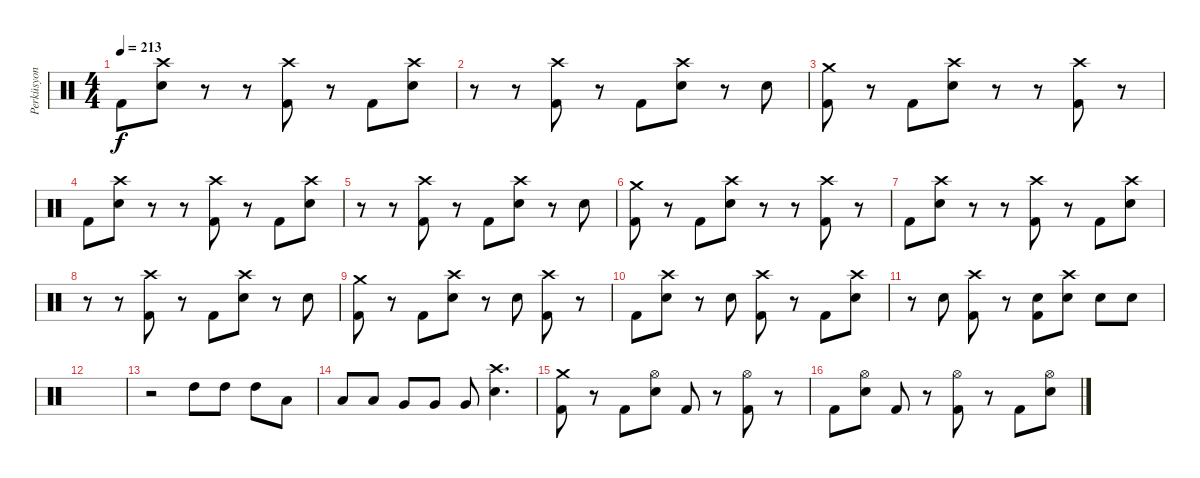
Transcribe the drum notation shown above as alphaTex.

\track ("Perküsyon" "Perküsyon") {instrument percussion}
\staff {score}
\articulation defaults
\ts (4 4)
\tempo 213
\clef neutral
\ks c "Kick (hit) 2".8{dy f}
("Crash high (hit)" "Electric Snare (hit)").8 r.8 r.8 ("Crash high (hit)" "Kick (hit) 2").8 r.8 "Kick (hit) 2".8 ("Crash high (hit)" "Electric Snare (hit)").8 |
r.8 r.8 ("Crash high (hit)" "Kick (hit) 2").8 r.8 "Kick (hit) 2".8 ("Crash high (hit)" "Electric Snare (hit)").8 r.8 "Electric Snare (hit)".8 |
("Crash medium (hit)" "Kick (hit) 2").8 r.8 "Kick (hit) 2".8 ("Crash high (hit)" "Electric Snare (hit)").8 r.8 r.8 ("Crash high (hit)" "Kick (hit) 2").8 r.8 |
"Kick (hit) 2".8 ("Crash high (hit)" "Electric Snare (hit)").8 r.8 r.8 ("Crash high (hit)" "Kick (hit) 2").8 r.8 "Kick (hit) 2".8 ("Crash high (hit)" "Electric Snare (hit)").8 |
r.8 r.8 ("Crash high (hit)" "Kick (hit) 2").8 r.8 "Kick (hit) 2".8 ("Crash high (hit)" "Electric Snare (hit)").8 r.8 "Electric Snare (hit)".8 |
("Crash medium (hit)" "Kick (hit) 2").8 r.8 "Kick (hit) 2".8 ("Crash high (hit)" "Electric Snare (hit)").8 r.8 r.8 ("Crash high (hit)" "Kick (hit) 2").8 r.8 |
"Kick (hit) 2".8 ("Crash high (hit)" "Electric Snare (hit)").8 r.8 r.8 ("Crash high (hit)" "Kick (hit) 2").8 r.8 "Kick (hit) 2".8 ("Crash high (hit)" "Electric Snare (hit)").8 |
r.8 r.8 ("Crash high (hit)" "Kick (hit) 2").8 r.8 "Kick (hit) 2".8 ("Crash high (hit)" "Electric Snare (hit)").8 r.8 "Electric Snare (hit)".8 |
("Crash medium (hit)" "Kick (hit) 2").8 r.8 "Kick (hit) 2".8 ("Crash high (hit)" "Electric Snare (hit)").8 r.8 "Electric Snare (hit)".8 ("Crash high (hit)" "Kick (hit) 2").8 r.8 |
"Kick (hit) 2".8 ("Crash high (hit)" "Electric Snare (hit)").8 r.8 "Electric Snare (hit)".8 ("Crash high (hit)" "Kick (hit) 2").8 r.8 "Kick (hit) 2".8 ("Crash high (hit)" "Electric Snare (hit)").8 |
r.8 "Electric Snare (hit)".8 ("Crash high (hit)" "Kick (hit) 2").8 r.8 ("Electric Snare (hit)" "Kick (hit) 2").8 ("Crash high (hit)" "Electric Snare (hit)").8 "Electric Snare (hit)".8 "Electric Snare (hit)".8 |
|
r.2 "High Tom (hit)".8 "High Tom (hit)".8 "High Tom (hit)".8 "Low Tom (hit)".8 |
"Low Tom (hit)".8 "Low Tom (hit)".8 "Very Low Tom (hit)".8 "Very Low Tom (hit)".8 "Very Low Tom (hit)".8 ("Crash high (hit)" "Electric Snare (hit)").4{d} |
("Crash medium (hit)" "Kick (hit) 2").8 r.8 "Kick (hit) 2".8 ("Hi-Hat (open)" "Electric Snare (hit)").8 "Kick (hit) 2".8 r.8 ("Hi-Hat (open)" "Kick (hit) 2").8 r.8 |
"Kick (hit) 2".8 ("Hi-Hat (open)" "Electric Snare (hit)").8 "Kick (hit) 2".8 r.8 ("Hi-Hat (open)" "Kick (hit) 2").8 r.8 "Kick (hit) 2".8 ("Hi-Hat (open)" "Electric Snare (hit)").8
